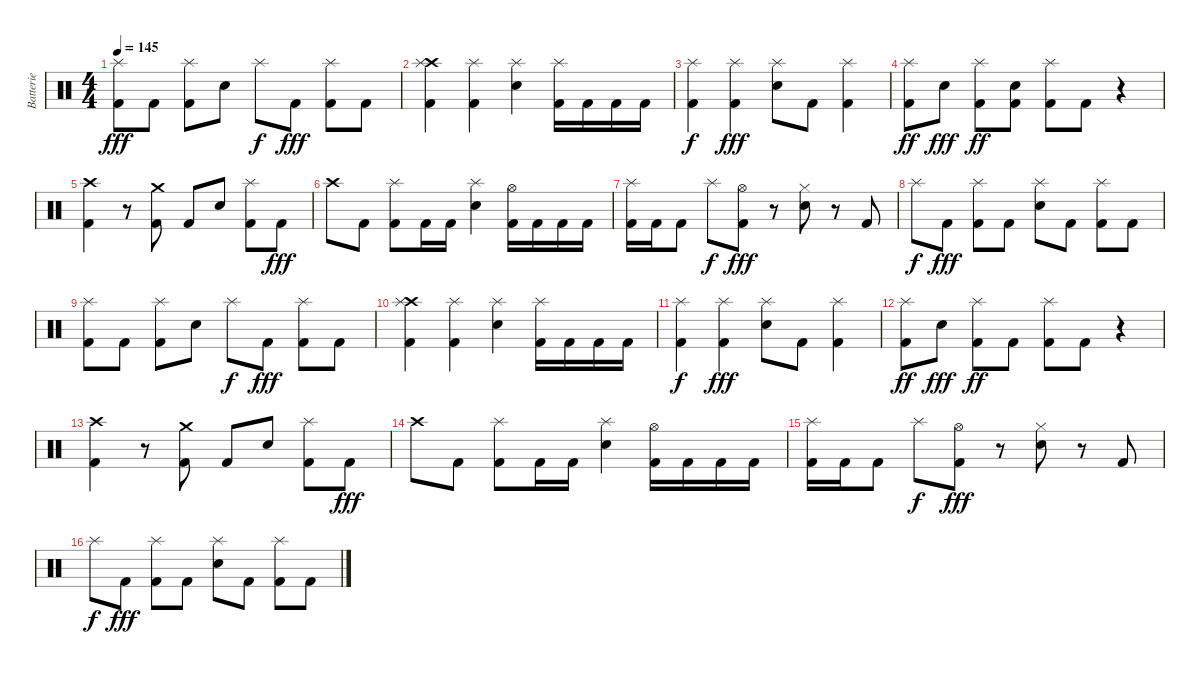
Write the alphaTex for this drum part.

\track ("Batterie" "Batterie") {instrument percussion}
\staff {score}
\articulation defaults
\ts (4 4)
\tempo 145
\clef neutral
\ks c
("Splash (hit)" "Kick (hit) 2").8{dy fff} "Kick (hit) 2".8 ("Splash (hit)" "Kick (hit) 2").8 "Electric Snare (hit)".8 "Splash (hit)".8{dy f} "Kick (hit) 2".8{dy fff} ("Splash (hit)" "Kick (hit) 2").8 "Kick (hit) 2".8 |
("Crash high (hit)" "Splash (hit)" "Kick (hit) 2").4 ("Splash (hit)" "Kick (hit) 2").4 ("Splash (hit)" "Electric Snare (hit)").4 ("Splash (hit)" "Kick (hit) 2").16 "Kick (hit) 2".16 "Kick (hit) 2".16 "Kick (hit) 2".16 |
("Splash (hit)" "Kick (hit) 2").4{dy f} ("Splash (hit)" "Kick (hit) 2").4{dy fff} ("Splash (hit)" "Electric Snare (hit)").8 "Kick (hit) 2".8 ("Splash (hit)" "Kick (hit) 2").4 |
("Splash (hit)" "Kick (hit) 2").8{dy ff} "Electric Snare (hit)".8{dy fff} ("Splash (hit)" "Kick (hit) 2").8{dy ff} ("Electric Snare (hit)" "Kick (hit) 2").8 ("Splash (hit)" "Kick (hit) 2").8 "Kick (hit) 2".8 r.4 |
("Crash high (hit)" "Kick (hit) 2").4 r.8 ("Crash medium (hit)" "Kick (hit) 2").8 "Kick (hit) 2".8 "Electric Snare (hit)".8 ("Splash (hit)" "Kick (hit) 2").8 "Kick (hit) 2".8{dy fff} |
"Crash high (hit)".8 "Kick (hit) 2".8 ("Splash (hit)" "Kick (hit) 2").8 "Kick (hit) 2".16 "Kick (hit) 2".16 ("Splash (hit)" "Electric Snare (hit)").4 ("Hi-Hat (open)" "Kick (hit) 2").16 "Kick (hit) 2".16 "Kick (hit) 2".16 "Kick (hit) 2".16 |
("Splash (hit)" "Kick (hit) 2").16 "Kick (hit) 2".16 "Kick (hit) 2".8 "Splash (hit)".8{dy f} ("Hi-Hat (open)" "Kick (hit) 2").8{dy fff} r.8 ("Hi-Hat (closed)" "Electric Snare (hit)").8 r.8 "Kick (hit) 2".8 |
"Splash (hit)".8{dy f} "Kick (hit) 2".8{dy fff} ("Splash (hit)" "Kick (hit) 2").8 "Kick (hit) 2".8 ("Splash (hit)" "Electric Snare (hit)").8 "Kick (hit) 2".8 ("Splash (hit)" "Kick (hit) 2").8 "Kick (hit) 2".8 |
("Splash (hit)" "Kick (hit) 2").8 "Kick (hit) 2".8 ("Splash (hit)" "Kick (hit) 2").8 "Electric Snare (hit)".8 "Splash (hit)".8{dy f} "Kick (hit) 2".8{dy fff} ("Splash (hit)" "Kick (hit) 2").8 "Kick (hit) 2".8 |
("Crash high (hit)" "Splash (hit)" "Kick (hit) 2").4 ("Splash (hit)" "Kick (hit) 2").4 ("Splash (hit)" "Electric Snare (hit)").4 ("Splash (hit)" "Kick (hit) 2").16 "Kick (hit) 2".16 "Kick (hit) 2".16 "Kick (hit) 2".16 |
("Splash (hit)" "Kick (hit) 2").4{dy f} ("Splash (hit)" "Kick (hit) 2").4{dy fff} ("Splash (hit)" "Electric Snare (hit)").8 "Kick (hit) 2".8 ("Splash (hit)" "Kick (hit) 2").4 |
("Splash (hit)" "Kick (hit) 2").8{dy ff} "Electric Snare (hit)".8{dy fff} ("Splash (hit)" "Kick (hit) 2").8{dy ff} "Kick (hit) 2".8 ("Splash (hit)" "Kick (hit) 2").8 "Kick (hit) 2".8 r.4 |
("Crash high (hit)" "Kick (hit) 2").4 r.8 ("Crash medium (hit)" "Kick (hit) 2").8 "Kick (hit) 2".8 "Electric Snare (hit)".8 ("Splash (hit)" "Kick (hit) 2").8 "Kick (hit) 2".8{dy fff} |
"Crash high (hit)".8 "Kick (hit) 2".8 ("Splash (hit)" "Kick (hit) 2").8 "Kick (hit) 2".16 "Kick (hit) 2".16 ("Splash (hit)" "Electric Snare (hit)").4 ("Hi-Hat (open)" "Kick (hit) 2").16 "Kick (hit) 2".16 "Kick (hit) 2".16 "Kick (hit) 2".16 |
("Splash (hit)" "Kick (hit) 2").16 "Kick (hit) 2".16 "Kick (hit) 2".8 "Splash (hit)".8{dy f} ("Hi-Hat (open)" "Kick (hit) 2").8{dy fff} r.8 ("Hi-Hat (closed)" "Electric Snare (hit)").8 r.8 "Kick (hit) 2".8 |
"Splash (hit)".8{dy f} "Kick (hit) 2".8{dy fff} ("Splash (hit)" "Kick (hit) 2").8 "Kick (hit) 2".8 ("Splash (hit)" "Electric Snare (hit)").8 "Kick (hit) 2".8 ("Splash (hit)" "Kick (hit) 2").8 "Kick (hit) 2".8
